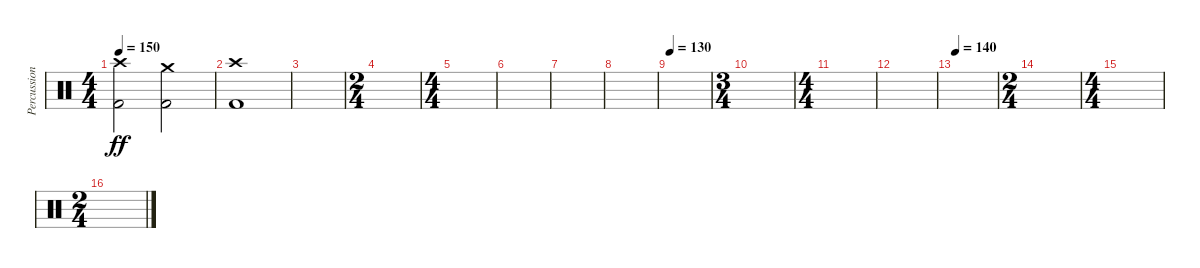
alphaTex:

\track ("Percussion" "Percussion") {instrument percussion}
\staff {score}
\articulation defaults
\ts (4 4)
\tempo 150
\clef neutral
\ks c
("Crash high (hit)" "Kick (hit) 2").2{dy ff} ("Crash medium (hit)" "Kick (hit) 2").2 |
("Crash high (hit)" "Kick (hit) 2").1 |
|
\ts (2 4)
|
\ts (4 4)
|
|
|
|
\tempo 130
|
\ts (3 4)
|
\ts (4 4)
|
|
\tempo 140
|
\ts (2 4)
|
\ts (4 4)
|
\ts (2 4)
